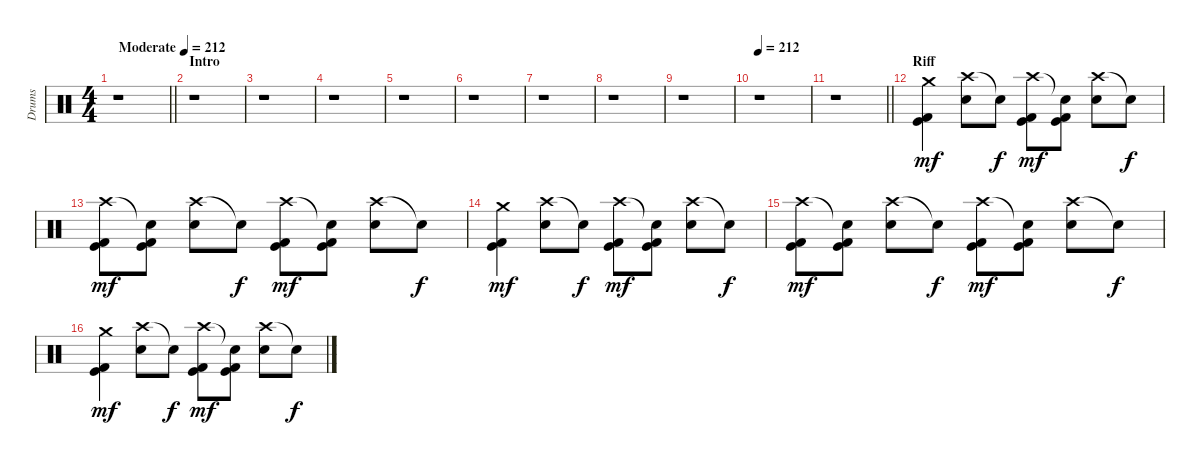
\track ("Drums" "Drums") {instrument percussion}
\staff {score}
\articulation defaults
\ts (4 4)
\tempo (212 "Moderate")
\tempo 188
\tempo (212 "Moderate")
\clef neutral
\barLineRight lightlight
\ks c
r.1{dy mf} |
\section ("" "Intro")
r.1 |
r.1 |
r.1 |
r.1 |
r.1 |
r.1 |
r.1 |
r.1 |
\tempo 212
r.1 |
\barLineRight lightlight
r.1 |
\section ("" "Riff")
("Crash medium (hit)" "Kick (hit)" "Kick (hit) 2").4 ("Crash high (hit)" "Snare (hit) 2").8 "Snare (hit)"{t}.8{dy f} ("Crash high (hit)" "Kick (hit)" "Kick (hit) 2").8{dy mf} ("Snare (hit)"{t} "Kick (hit)" "Kick (hit) 2").8 ("Crash high (hit)" "Snare (hit) 2").8 "Snare (hit)"{t}.8{dy f} |
("Crash high (hit)" "Kick (hit)" "Kick (hit) 2").8{dy mf} ("Snare (hit)"{t} "Kick (hit)" "Kick (hit) 2").8 ("Crash high (hit)" "Snare (hit) 2").8 "Snare (hit)"{t}.8{dy f} ("Crash high (hit)" "Kick (hit)" "Kick (hit) 2").8{dy mf} ("Snare (hit)"{t} "Kick (hit)" "Kick (hit) 2").8 ("Crash high (hit)" "Snare (hit) 2").8 "Snare (hit)"{t}.8{dy f} |
("Crash medium (hit)" "Kick (hit)" "Kick (hit) 2").4{dy mf} ("Crash high (hit)" "Snare (hit) 2").8 "Snare (hit)"{t}.8{dy f} ("Crash high (hit)" "Kick (hit)" "Kick (hit) 2").8{dy mf} ("Snare (hit)"{t} "Kick (hit)" "Kick (hit) 2").8 ("Crash high (hit)" "Snare (hit) 2").8 "Snare (hit)"{t}.8{dy f} |
("Crash high (hit)" "Kick (hit)" "Kick (hit) 2").8{dy mf} ("Snare (hit)"{t} "Kick (hit)" "Kick (hit) 2").8 ("Crash high (hit)" "Snare (hit) 2").8 "Snare (hit)"{t}.8{dy f} ("Crash high (hit)" "Kick (hit)" "Kick (hit) 2").8{dy mf} ("Snare (hit)"{t} "Kick (hit)" "Kick (hit) 2").8 ("Crash high (hit)" "Snare (hit) 2").8 "Snare (hit)"{t}.8{dy f} |
("Crash medium (hit)" "Kick (hit)" "Kick (hit) 2").4{dy mf} ("Crash high (hit)" "Snare (hit) 2").8 "Snare (hit)"{t}.8{dy f} ("Crash high (hit)" "Kick (hit)" "Kick (hit) 2").8{dy mf} ("Snare (hit)"{t} "Kick (hit)" "Kick (hit) 2").8 ("Crash high (hit)" "Snare (hit) 2").8 "Snare (hit)"{t}.8{dy f}
